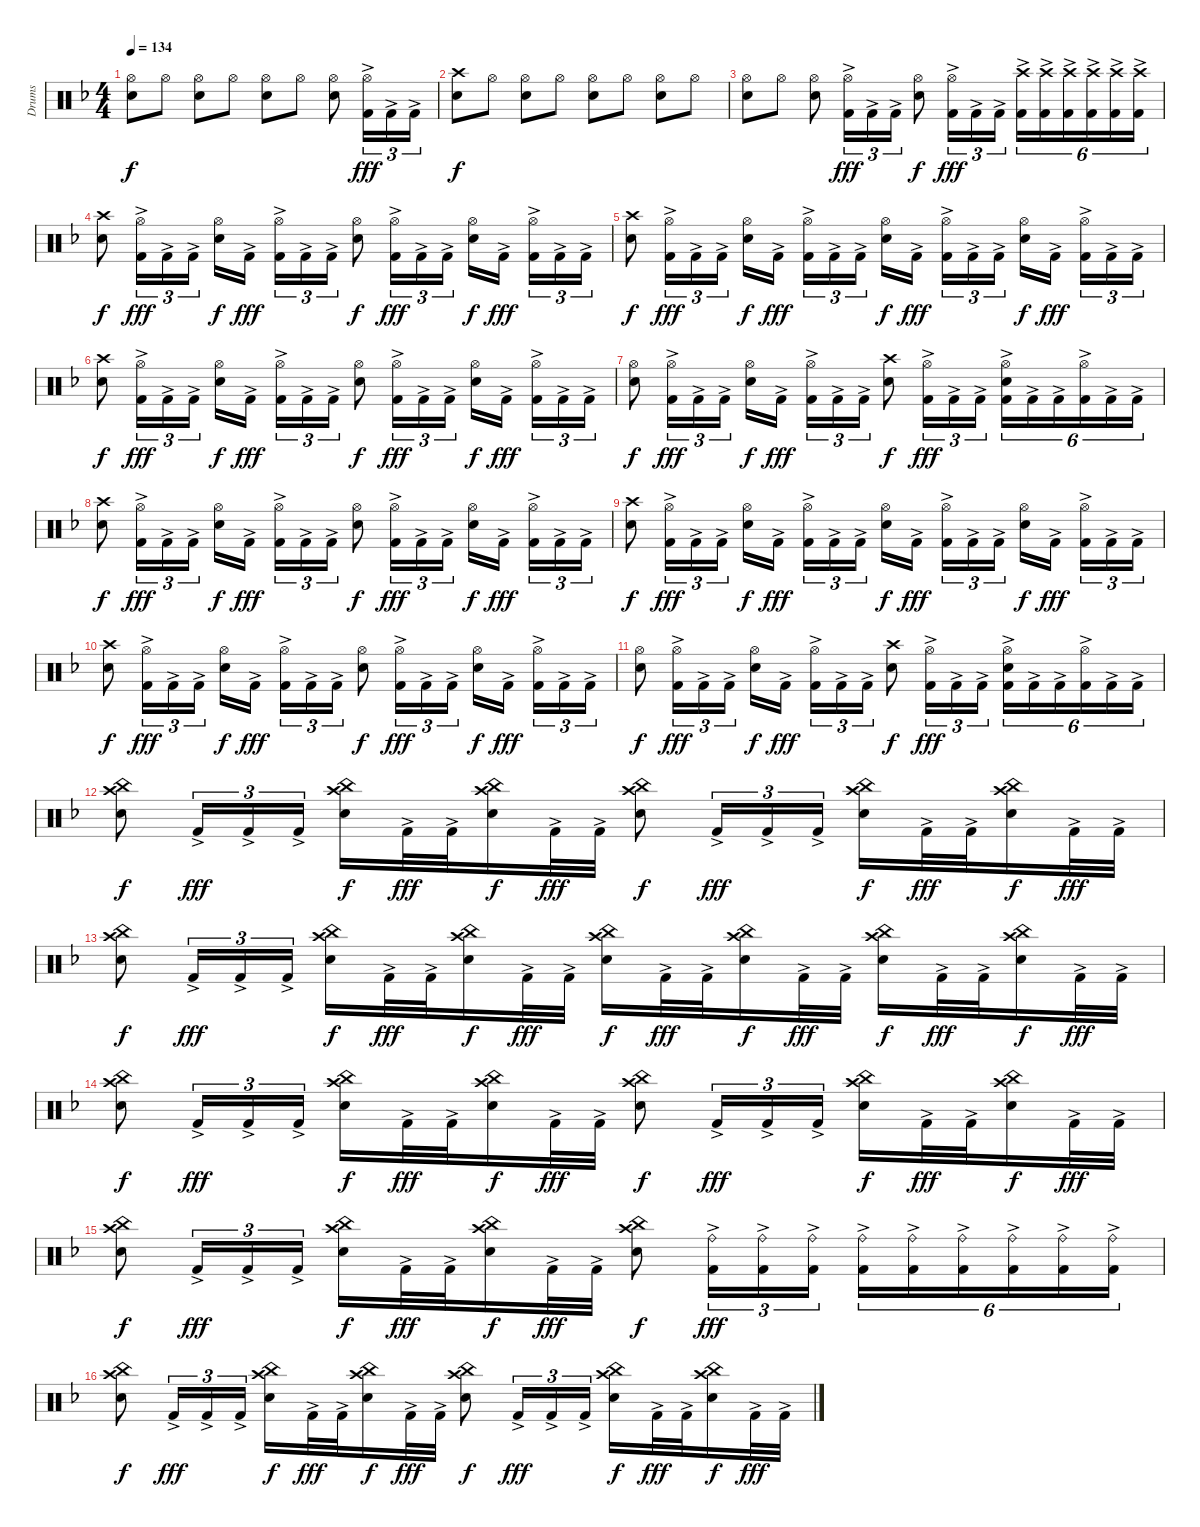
\track ("Drums" "Drums") {instrument percussion}
\staff {score}
\articulation defaults
\ts (4 4)
\tempo 134
\clef neutral
\ks dminor
("Hi-Hat (open)" "Snare (hit) 2").8{dy f} "Hi-Hat (open)".8 ("Hi-Hat (open)" "Snare (hit) 2").8 "Hi-Hat (open)".8 ("Hi-Hat (open)" "Snare (hit) 2").8 "Hi-Hat (open)".8 ("Hi-Hat (open)" "Snare (hit) 2").8 ("Hi-Hat (open)" "Kick (hit) 2"{ac}).16{tu (3 2) dy fff} "Kick (hit) 2"{ac}.16{tu (3 2)} "Kick (hit) 2"{ac}.16{tu (3 2)} |
("Crash high (hit)" "Snare (hit) 2").8{dy f} "Hi-Hat (open)".8 ("Hi-Hat (open)" "Snare (hit) 2").8 "Hi-Hat (open)".8 ("Hi-Hat (open)" "Snare (hit) 2").8 "Hi-Hat (open)".8 ("Hi-Hat (open)" "Snare (hit) 2").8 "Hi-Hat (open)".8 |
("Hi-Hat (open)" "Snare (hit) 2").8 "Hi-Hat (open)".8 ("Hi-Hat (open)" "Snare (hit) 2").8 ("Hi-Hat (open)" "Kick (hit) 2"{ac}).16{tu (3 2) dy fff} "Kick (hit) 2"{ac}.16{tu (3 2)} "Kick (hit) 2"{ac}.16{tu (3 2)} ("Hi-Hat (open)" "Snare (hit) 2").8{dy f} ("Hi-Hat (open)" "Kick (hit) 2"{ac}).16{tu (3 2) dy fff} "Kick (hit) 2"{ac}.16{tu (3 2)} "Kick (hit) 2"{ac}.16{tu (3 2)} ("Crash high (hit)" "Kick (hit) 2"{ac}).16{tu (6 4)} ("Crash high (hit)" "Kick (hit) 2"{ac}).16{tu (6 4)} ("Crash high (hit)" "Kick (hit) 2"{ac}).16{tu (6 4)} ("Crash high (hit)" "Kick (hit) 2"{ac}).16{tu (6 4)} ("Crash high (hit)" "Kick (hit) 2"{ac}).16{tu (6 4)} ("Crash high (hit)" "Kick (hit) 2"{ac}).16{tu (6 4)} |
("Crash high (hit)" "Snare (hit) 2").8{dy f} ("Hi-Hat (open)" "Kick (hit) 2"{ac}).16{tu (3 2) dy fff} "Kick (hit) 2"{ac}.16{tu (3 2)} "Kick (hit) 2"{ac}.16{tu (3 2)} ("Hi-Hat (open)" "Snare (hit) 2").16{dy f} "Kick (hit) 2"{ac}.16{dy fff} ("Hi-Hat (open)" "Kick (hit) 2"{ac}).16{tu (3 2)} "Kick (hit) 2"{ac}.16{tu (3 2)} "Kick (hit) 2"{ac}.16{tu (3 2)} ("Hi-Hat (open)" "Snare (hit) 2").8{dy f} ("Hi-Hat (open)" "Kick (hit) 2"{ac}).16{tu (3 2) dy fff} "Kick (hit) 2"{ac}.16{tu (3 2)} "Kick (hit) 2"{ac}.16{tu (3 2)} ("Hi-Hat (open)" "Snare (hit) 2").16{dy f} "Kick (hit) 2"{ac}.16{dy fff} ("Hi-Hat (open)" "Kick (hit) 2"{ac}).16{tu (3 2)} "Kick (hit) 2"{ac}.16{tu (3 2)} "Kick (hit) 2"{ac}.16{tu (3 2)} |
("Crash high (hit)" "Snare (hit) 2").8{dy f} ("Hi-Hat (open)" "Kick (hit) 2"{ac}).16{tu (3 2) dy fff} "Kick (hit) 2"{ac}.16{tu (3 2)} "Kick (hit) 2"{ac}.16{tu (3 2)} ("Hi-Hat (open)" "Snare (hit) 2").16{dy f} "Kick (hit) 2"{ac}.16{dy fff} ("Hi-Hat (open)" "Kick (hit) 2"{ac}).16{tu (3 2)} "Kick (hit) 2"{ac}.16{tu (3 2)} "Kick (hit) 2"{ac}.16{tu (3 2)} ("Hi-Hat (open)" "Snare (hit) 2").16{dy f} "Kick (hit) 2"{ac}.16{dy fff} ("Hi-Hat (open)" "Kick (hit) 2"{ac}).16{tu (3 2)} "Kick (hit) 2"{ac}.16{tu (3 2)} "Kick (hit) 2"{ac}.16{tu (3 2)} ("Hi-Hat (open)" "Snare (hit) 2").16{dy f} "Kick (hit) 2"{ac}.16{dy fff} ("Hi-Hat (open)" "Kick (hit) 2"{ac}).16{tu (3 2)} "Kick (hit) 2"{ac}.16{tu (3 2)} "Kick (hit) 2"{ac}.16{tu (3 2)} |
("Crash high (hit)" "Snare (hit) 2").8{dy f} ("Hi-Hat (open)" "Kick (hit) 2"{ac}).16{tu (3 2) dy fff} "Kick (hit) 2"{ac}.16{tu (3 2)} "Kick (hit) 2"{ac}.16{tu (3 2)} ("Hi-Hat (open)" "Snare (hit) 2").16{dy f} "Kick (hit) 2"{ac}.16{dy fff} ("Hi-Hat (open)" "Kick (hit) 2"{ac}).16{tu (3 2)} "Kick (hit) 2"{ac}.16{tu (3 2)} "Kick (hit) 2"{ac}.16{tu (3 2)} ("Hi-Hat (open)" "Snare (hit) 2").8{dy f} ("Hi-Hat (open)" "Kick (hit) 2"{ac}).16{tu (3 2) dy fff} "Kick (hit) 2"{ac}.16{tu (3 2)} "Kick (hit) 2"{ac}.16{tu (3 2)} ("Hi-Hat (open)" "Snare (hit) 2").16{dy f} "Kick (hit) 2"{ac}.16{dy fff} ("Hi-Hat (open)" "Kick (hit) 2"{ac}).16{tu (3 2)} "Kick (hit) 2"{ac}.16{tu (3 2)} "Kick (hit) 2"{ac}.16{tu (3 2)} |
("Hi-Hat (open)" "Snare (hit) 2").8{dy f} ("Hi-Hat (open)" "Kick (hit) 2"{ac}).16{tu (3 2) dy fff} "Kick (hit) 2"{ac}.16{tu (3 2)} "Kick (hit) 2"{ac}.16{tu (3 2)} ("Hi-Hat (open)" "Snare (hit) 2").16{dy f} "Kick (hit) 2"{ac}.16{dy fff} ("Hi-Hat (open)" "Kick (hit) 2"{ac}).16{tu (3 2)} "Kick (hit) 2"{ac}.16{tu (3 2)} "Kick (hit) 2"{ac}.16{tu (3 2)} ("Crash high (hit)" "Snare (hit) 2").8{dy f} ("Hi-Hat (open)" "Kick (hit) 2"{ac}).16{tu (3 2) dy fff} "Kick (hit) 2"{ac}.16{tu (3 2)} "Kick (hit) 2"{ac}.16{tu (3 2)} ("Hi-Hat (open)" "Snare (hit) 2" "Kick (hit) 2"{ac}).16{tu (6 4)} "Kick (hit) 2"{ac}.16{tu (6 4)} "Kick (hit) 2"{ac}.16{tu (6 4)} ("Hi-Hat (open)" "Kick (hit) 2"{ac}).16{tu (6 4)} "Kick (hit) 2"{ac}.16{tu (6 4)} "Kick (hit) 2"{ac}.16{tu (6 4)} |
("Crash high (hit)" "Snare (hit) 2").8{dy f} ("Hi-Hat (open)" "Kick (hit) 2"{ac}).16{tu (3 2) dy fff} "Kick (hit) 2"{ac}.16{tu (3 2)} "Kick (hit) 2"{ac}.16{tu (3 2)} ("Hi-Hat (open)" "Snare (hit) 2").16{dy f} "Kick (hit) 2"{ac}.16{dy fff} ("Hi-Hat (open)" "Kick (hit) 2"{ac}).16{tu (3 2)} "Kick (hit) 2"{ac}.16{tu (3 2)} "Kick (hit) 2"{ac}.16{tu (3 2)} ("Hi-Hat (open)" "Snare (hit) 2").8{dy f} ("Hi-Hat (open)" "Kick (hit) 2"{ac}).16{tu (3 2) dy fff} "Kick (hit) 2"{ac}.16{tu (3 2)} "Kick (hit) 2"{ac}.16{tu (3 2)} ("Hi-Hat (open)" "Snare (hit) 2").16{dy f} "Kick (hit) 2"{ac}.16{dy fff} ("Hi-Hat (open)" "Kick (hit) 2"{ac}).16{tu (3 2)} "Kick (hit) 2"{ac}.16{tu (3 2)} "Kick (hit) 2"{ac}.16{tu (3 2)} |
("Crash high (hit)" "Snare (hit) 2").8{dy f} ("Hi-Hat (open)" "Kick (hit) 2"{ac}).16{tu (3 2) dy fff} "Kick (hit) 2"{ac}.16{tu (3 2)} "Kick (hit) 2"{ac}.16{tu (3 2)} ("Hi-Hat (open)" "Snare (hit) 2").16{dy f} "Kick (hit) 2"{ac}.16{dy fff} ("Hi-Hat (open)" "Kick (hit) 2"{ac}).16{tu (3 2)} "Kick (hit) 2"{ac}.16{tu (3 2)} "Kick (hit) 2"{ac}.16{tu (3 2)} ("Hi-Hat (open)" "Snare (hit) 2").16{dy f} "Kick (hit) 2"{ac}.16{dy fff} ("Hi-Hat (open)" "Kick (hit) 2"{ac}).16{tu (3 2)} "Kick (hit) 2"{ac}.16{tu (3 2)} "Kick (hit) 2"{ac}.16{tu (3 2)} ("Hi-Hat (open)" "Snare (hit) 2").16{dy f} "Kick (hit) 2"{ac}.16{dy fff} ("Hi-Hat (open)" "Kick (hit) 2"{ac}).16{tu (3 2)} "Kick (hit) 2"{ac}.16{tu (3 2)} "Kick (hit) 2"{ac}.16{tu (3 2)} |
("Crash high (hit)" "Snare (hit) 2").8{dy f} ("Hi-Hat (open)" "Kick (hit) 2"{ac}).16{tu (3 2) dy fff} "Kick (hit) 2"{ac}.16{tu (3 2)} "Kick (hit) 2"{ac}.16{tu (3 2)} ("Hi-Hat (open)" "Snare (hit) 2").16{dy f} "Kick (hit) 2"{ac}.16{dy fff} ("Hi-Hat (open)" "Kick (hit) 2"{ac}).16{tu (3 2)} "Kick (hit) 2"{ac}.16{tu (3 2)} "Kick (hit) 2"{ac}.16{tu (3 2)} ("Hi-Hat (open)" "Snare (hit) 2").8{dy f} ("Hi-Hat (open)" "Kick (hit) 2"{ac}).16{tu (3 2) dy fff} "Kick (hit) 2"{ac}.16{tu (3 2)} "Kick (hit) 2"{ac}.16{tu (3 2)} ("Hi-Hat (open)" "Snare (hit) 2").16{dy f} "Kick (hit) 2"{ac}.16{dy fff} ("Hi-Hat (open)" "Kick (hit) 2"{ac}).16{tu (3 2)} "Kick (hit) 2"{ac}.16{tu (3 2)} "Kick (hit) 2"{ac}.16{tu (3 2)} |
("Hi-Hat (open)" "Snare (hit) 2").8{dy f} ("Hi-Hat (open)" "Kick (hit) 2"{ac}).16{tu (3 2) dy fff} "Kick (hit) 2"{ac}.16{tu (3 2)} "Kick (hit) 2"{ac}.16{tu (3 2)} ("Hi-Hat (open)" "Snare (hit) 2").16{dy f} "Kick (hit) 2"{ac}.16{dy fff} ("Hi-Hat (open)" "Kick (hit) 2"{ac}).16{tu (3 2)} "Kick (hit) 2"{ac}.16{tu (3 2)} "Kick (hit) 2"{ac}.16{tu (3 2)} ("Crash high (hit)" "Snare (hit) 2").8{dy f} ("Hi-Hat (open)" "Kick (hit) 2"{ac}).16{tu (3 2) dy fff} "Kick (hit) 2"{ac}.16{tu (3 2)} "Kick (hit) 2"{ac}.16{tu (3 2)} ("Hi-Hat (open)" "Snare (hit) 2" "Kick (hit) 2"{ac}).16{tu (6 4)} "Kick (hit) 2"{ac}.16{tu (6 4)} "Kick (hit) 2"{ac}.16{tu (6 4)} ("Hi-Hat (open)" "Kick (hit) 2"{ac}).16{tu (6 4)} "Kick (hit) 2"{ac}.16{tu (6 4)} "Kick (hit) 2"{ac}.16{tu (6 4)} |
("Crash high (hit)" "China (hit)" "Snare (hit) 2").8{dy f} "Kick (hit) 2"{ac}.16{tu (3 2) dy fff} "Kick (hit) 2"{ac}.16{tu (3 2)} "Kick (hit) 2"{ac}.16{tu (3 2)} ("Crash high (hit)" "China (hit)" "Snare (hit) 2").16{dy f} "Kick (hit) 2"{ac}.32{dy fff} "Kick (hit) 2"{ac}.32 ("Crash high (hit)" "China (hit)" "Snare (hit) 2").16{dy f} "Kick (hit) 2"{ac}.32{dy fff} "Kick (hit) 2"{ac}.32 ("Crash high (hit)" "China (hit)" "Snare (hit) 2").8{dy f} "Kick (hit) 2"{ac}.16{tu (3 2) dy fff} "Kick (hit) 2"{ac}.16{tu (3 2)} "Kick (hit) 2"{ac}.16{tu (3 2)} ("Crash high (hit)" "China (hit)" "Snare (hit) 2").16{dy f} "Kick (hit) 2"{ac}.32{dy fff} "Kick (hit) 2"{ac}.32 ("Crash high (hit)" "China (hit)" "Snare (hit) 2").16{dy f} "Kick (hit) 2"{ac}.32{dy fff} "Kick (hit) 2"{ac}.32 |
("Crash high (hit)" "China (hit)" "Snare (hit) 2").8{dy f} "Kick (hit) 2"{ac}.16{tu (3 2) dy fff} "Kick (hit) 2"{ac}.16{tu (3 2)} "Kick (hit) 2"{ac}.16{tu (3 2)} ("Crash high (hit)" "China (hit)" "Snare (hit) 2").16{dy f} "Kick (hit) 2"{ac}.32{dy fff} "Kick (hit) 2"{ac}.32 ("Crash high (hit)" "China (hit)" "Snare (hit) 2").16{dy f} "Kick (hit) 2"{ac}.32{dy fff} "Kick (hit) 2"{ac}.32 ("Crash high (hit)" "China (hit)" "Snare (hit) 2").16{dy f} "Kick (hit) 2"{ac}.32{dy fff} "Kick (hit) 2"{ac}.32 ("Crash high (hit)" "China (hit)" "Snare (hit) 2").16{dy f} "Kick (hit) 2"{ac}.32{dy fff} "Kick (hit) 2"{ac}.32 ("Crash high (hit)" "China (hit)" "Snare (hit) 2").16{dy f} "Kick (hit) 2"{ac}.32{dy fff} "Kick (hit) 2"{ac}.32 ("Crash high (hit)" "China (hit)" "Snare (hit) 2").16{dy f} "Kick (hit) 2"{ac}.32{dy fff} "Kick (hit) 2"{ac}.32 |
("Crash high (hit)" "China (hit)" "Snare (hit) 2").8{dy f} "Kick (hit) 2"{ac}.16{tu (3 2) dy fff} "Kick (hit) 2"{ac}.16{tu (3 2)} "Kick (hit) 2"{ac}.16{tu (3 2)} ("Crash high (hit)" "China (hit)" "Snare (hit) 2").16{dy f} "Kick (hit) 2"{ac}.32{dy fff} "Kick (hit) 2"{ac}.32 ("Crash high (hit)" "China (hit)" "Snare (hit) 2").16{dy f} "Kick (hit) 2"{ac}.32{dy fff} "Kick (hit) 2"{ac}.32 ("Crash high (hit)" "China (hit)" "Snare (hit) 2").8{dy f} "Kick (hit) 2"{ac}.16{tu (3 2) dy fff} "Kick (hit) 2"{ac}.16{tu (3 2)} "Kick (hit) 2"{ac}.16{tu (3 2)} ("Crash high (hit)" "China (hit)" "Snare (hit) 2").16{dy f} "Kick (hit) 2"{ac}.32{dy fff} "Kick (hit) 2"{ac}.32 ("Crash high (hit)" "China (hit)" "Snare (hit) 2").16{dy f} "Kick (hit) 2"{ac}.32{dy fff} "Kick (hit) 2"{ac}.32 |
("Crash high (hit)" "China (hit)" "Snare (hit) 2").8{dy f} "Kick (hit) 2"{ac}.16{tu (3 2) dy fff} "Kick (hit) 2"{ac}.16{tu (3 2)} "Kick (hit) 2"{ac}.16{tu (3 2)} ("Crash high (hit)" "China (hit)" "Snare (hit) 2").16{dy f} "Kick (hit) 2"{ac}.32{dy fff} "Kick (hit) 2"{ac}.32 ("Crash high (hit)" "China (hit)" "Snare (hit) 2").16{dy f} "Kick (hit) 2"{ac}.32{dy fff} "Kick (hit) 2"{ac}.32 ("Crash high (hit)" "China (hit)" "Snare (hit) 2").8{dy f} ("Ride (bell)" "Kick (hit) 2"{ac}).16{tu (3 2) dy fff} ("Ride (bell)" "Kick (hit) 2"{ac}).16{tu (3 2)} ("Ride (bell)" "Kick (hit) 2"{ac}).16{tu (3 2)} ("Ride (bell)" "Kick (hit) 2"{ac}).16{tu (6 4)} ("Ride (bell)" "Kick (hit) 2"{ac}).16{tu (6 4)} ("Ride (bell)" "Kick (hit) 2"{ac}).16{tu (6 4)} ("Ride (bell)" "Kick (hit) 2"{ac}).16{tu (6 4)} ("Ride (bell)" "Kick (hit) 2"{ac}).16{tu (6 4)} ("Ride (bell)" "Kick (hit) 2"{ac}).16{tu (6 4)} |
("Crash high (hit)" "China (hit)" "Snare (hit) 2").8{dy f} "Kick (hit) 2"{ac}.16{tu (3 2) dy fff} "Kick (hit) 2"{ac}.16{tu (3 2)} "Kick (hit) 2"{ac}.16{tu (3 2)} ("Crash high (hit)" "China (hit)" "Snare (hit) 2").16{dy f} "Kick (hit) 2"{ac}.32{dy fff} "Kick (hit) 2"{ac}.32 ("Crash high (hit)" "China (hit)" "Snare (hit) 2").16{dy f} "Kick (hit) 2"{ac}.32{dy fff} "Kick (hit) 2"{ac}.32 ("Crash high (hit)" "China (hit)" "Snare (hit) 2").8{dy f} "Kick (hit) 2"{ac}.16{tu (3 2) dy fff} "Kick (hit) 2"{ac}.16{tu (3 2)} "Kick (hit) 2"{ac}.16{tu (3 2)} ("Crash high (hit)" "China (hit)" "Snare (hit) 2").16{dy f} "Kick (hit) 2"{ac}.32{dy fff} "Kick (hit) 2"{ac}.32 ("Crash high (hit)" "China (hit)" "Snare (hit) 2").16{dy f} "Kick (hit) 2"{ac}.32{dy fff} "Kick (hit) 2"{ac}.32
